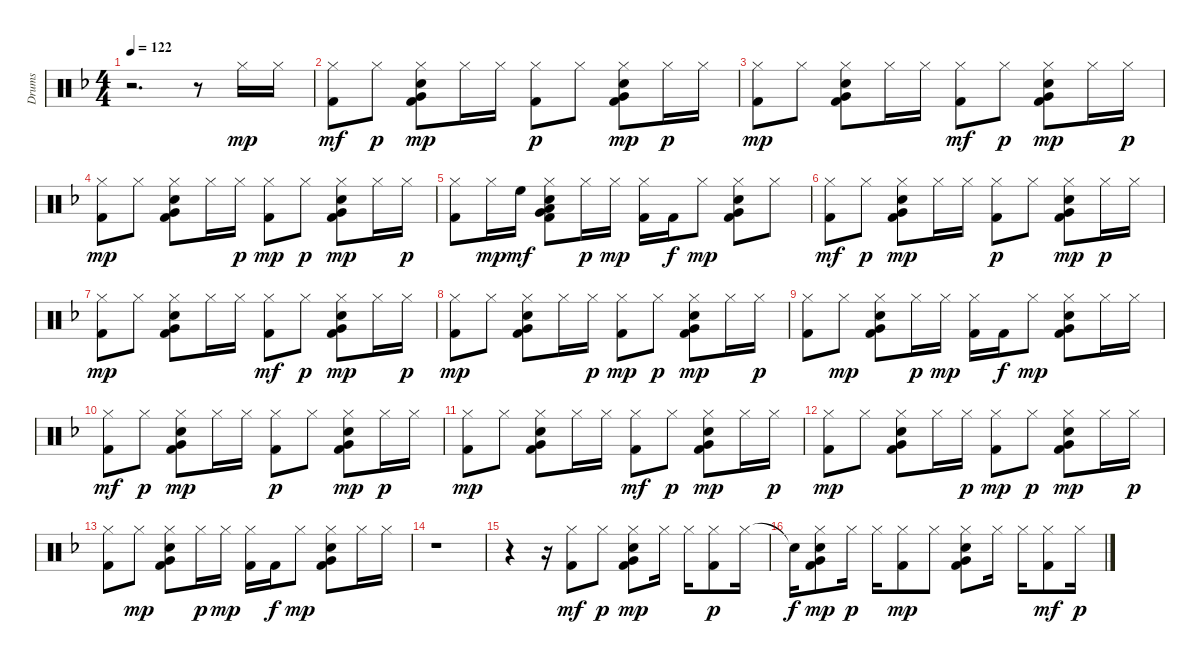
\track ("Drums" "Drums") {instrument percussion}
\staff {score}
\articulation defaults
\ts (4 4)
\tempo 122
\clef neutral
\ks f
r.2{d dy mp} r.8 "Hi-Hat (closed)".16 "Hi-Hat (closed)".16 |
("Kick (hit) 2" "Hi-Hat (closed)").8{dy mf} "Hi-Hat (closed)".8{dy p} ("Kick (hit) 2" "Snare (hit) 2" "Hi-Hat (closed)" "Very Low Tom (hit)").8{dy mp} "Hi-Hat (closed)".16 "Hi-Hat (closed)".16 ("Kick (hit) 2" "Hi-Hat (closed)").8{dy p} "Hi-Hat (closed)".8 ("Kick (hit) 2" "Snare (hit) 2" "Hi-Hat (closed)" "Very Low Tom (hit)").8{dy mp} "Hi-Hat (closed)".16{dy p} "Hi-Hat (closed)".16 |
("Kick (hit) 2" "Hi-Hat (closed)").8{dy mp} "Hi-Hat (closed)".8 ("Kick (hit) 2" "Snare (hit) 2" "Hi-Hat (closed)" "Very Low Tom (hit)").8 "Hi-Hat (closed)".16 "Hi-Hat (closed)".16 ("Kick (hit) 2" "Hi-Hat (closed)").8{dy mf} "Hi-Hat (closed)".8{dy p} ("Kick (hit) 2" "Snare (hit) 2" "Hi-Hat (closed)" "Very Low Tom (hit)").8{dy mp} "Hi-Hat (closed)".16 "Hi-Hat (closed)".16{dy p} |
("Kick (hit) 2" "Hi-Hat (closed)").8{dy mp} "Hi-Hat (closed)".8 ("Kick (hit) 2" "Snare (hit) 2" "Hi-Hat (closed)" "Very Low Tom (hit)").8 "Hi-Hat (closed)".16 "Hi-Hat (closed)".16{dy p} ("Kick (hit) 2" "Hi-Hat (closed)").8{dy mp} "Hi-Hat (closed)".8{dy p} ("Kick (hit) 2" "Snare (hit) 2" "Hi-Hat (closed)" "Very Low Tom (hit)").8{dy mp} "Hi-Hat (closed)".16 "Hi-Hat (closed)".16{dy p} |
("Kick (hit) 2" "Hi-Hat (closed)").8 "Hi-Hat (closed)".16{dy mp} "High Floor Tom (hit)".16{dy mf} ("Kick (hit) 2" "Snare (hit) 2" "Hi-Hat (closed)" "Very Low Tom (hit)" "Low Tom (hit)").8 "Hi-Hat (closed)".16{dy p} "Hi-Hat (closed)".16{dy mp} ("Kick (hit) 2" "Hi-Hat (closed)").16 "Kick (hit) 2".16{dy f} "Hi-Hat (closed)".8{dy mp} ("Kick (hit) 2" "Snare (hit) 2" "Hi-Hat (closed)" "Very Low Tom (hit)").8 "Hi-Hat (closed)".8 |
("Kick (hit) 2" "Hi-Hat (closed)").8{dy mf} "Hi-Hat (closed)".8{dy p} ("Kick (hit) 2" "Snare (hit) 2" "Hi-Hat (closed)" "Very Low Tom (hit)").8{dy mp} "Hi-Hat (closed)".16 "Hi-Hat (closed)".16 ("Kick (hit) 2" "Hi-Hat (closed)").8{dy p} "Hi-Hat (closed)".8 ("Kick (hit) 2" "Snare (hit) 2" "Hi-Hat (closed)" "Very Low Tom (hit)").8{dy mp} "Hi-Hat (closed)".16{dy p} "Hi-Hat (closed)".16 |
("Kick (hit) 2" "Hi-Hat (closed)").8{dy mp} "Hi-Hat (closed)".8 ("Kick (hit) 2" "Snare (hit) 2" "Hi-Hat (closed)" "Very Low Tom (hit)").8 "Hi-Hat (closed)".16 "Hi-Hat (closed)".16 ("Kick (hit) 2" "Hi-Hat (closed)").8{dy mf} "Hi-Hat (closed)".8{dy p} ("Kick (hit) 2" "Snare (hit) 2" "Hi-Hat (closed)" "Very Low Tom (hit)").8{dy mp} "Hi-Hat (closed)".16 "Hi-Hat (closed)".16{dy p} |
("Kick (hit) 2" "Hi-Hat (closed)").8{dy mp} "Hi-Hat (closed)".8 ("Kick (hit) 2" "Snare (hit) 2" "Hi-Hat (closed)" "Very Low Tom (hit)").8 "Hi-Hat (closed)".16 "Hi-Hat (closed)".16{dy p} ("Kick (hit) 2" "Hi-Hat (closed)").8{dy mp} "Hi-Hat (closed)".8{dy p} ("Kick (hit) 2" "Snare (hit) 2" "Hi-Hat (closed)" "Very Low Tom (hit)").8{dy mp} "Hi-Hat (closed)".16 "Hi-Hat (closed)".16{dy p} |
("Kick (hit) 2" "Hi-Hat (closed)").8 "Hi-Hat (closed)".8{dy mp} ("Kick (hit) 2" "Snare (hit) 2" "Hi-Hat (closed)" "Very Low Tom (hit)").8 "Hi-Hat (closed)".16{dy p} "Hi-Hat (closed)".16{dy mp} ("Kick (hit) 2" "Hi-Hat (closed)").16 "Kick (hit) 2".16{dy f} "Hi-Hat (closed)".8{dy mp} ("Kick (hit) 2" "Snare (hit) 2" "Hi-Hat (closed)" "Very Low Tom (hit)").8 "Hi-Hat (closed)".16 "Hi-Hat (closed)".16 |
("Kick (hit) 2" "Hi-Hat (closed)").8{dy mf} "Hi-Hat (closed)".8{dy p} ("Kick (hit) 2" "Snare (hit) 2" "Hi-Hat (closed)" "Very Low Tom (hit)").8{dy mp} "Hi-Hat (closed)".16 "Hi-Hat (closed)".16 ("Kick (hit) 2" "Hi-Hat (closed)").8{dy p} "Hi-Hat (closed)".8 ("Kick (hit) 2" "Snare (hit) 2" "Hi-Hat (closed)" "Very Low Tom (hit)").8{dy mp} "Hi-Hat (closed)".16{dy p} "Hi-Hat (closed)".16 |
("Kick (hit) 2" "Hi-Hat (closed)").8{dy mp} "Hi-Hat (closed)".8 ("Kick (hit) 2" "Snare (hit) 2" "Hi-Hat (closed)" "Very Low Tom (hit)").8 "Hi-Hat (closed)".16 "Hi-Hat (closed)".16 ("Kick (hit) 2" "Hi-Hat (closed)").8{dy mf} "Hi-Hat (closed)".8{dy p} ("Kick (hit) 2" "Snare (hit) 2" "Hi-Hat (closed)" "Very Low Tom (hit)").8{dy mp} "Hi-Hat (closed)".16 "Hi-Hat (closed)".16{dy p} |
("Kick (hit) 2" "Hi-Hat (closed)").8{dy mp} "Hi-Hat (closed)".8 ("Kick (hit) 2" "Snare (hit) 2" "Hi-Hat (closed)" "Very Low Tom (hit)").8 "Hi-Hat (closed)".16 "Hi-Hat (closed)".16{dy p} ("Kick (hit) 2" "Hi-Hat (closed)").8{dy mp} "Hi-Hat (closed)".8{dy p} ("Kick (hit) 2" "Snare (hit) 2" "Hi-Hat (closed)" "Very Low Tom (hit)").8{dy mp} "Hi-Hat (closed)".16 "Hi-Hat (closed)".16{dy p} |
("Kick (hit) 2" "Hi-Hat (closed)").8 "Hi-Hat (closed)".8{dy mp} ("Kick (hit) 2" "Snare (hit) 2" "Hi-Hat (closed)" "Very Low Tom (hit)").8 "Hi-Hat (closed)".16{dy p} "Hi-Hat (closed)".16{dy mp} ("Kick (hit) 2" "Hi-Hat (closed)").16 "Kick (hit) 2".16{dy f} "Hi-Hat (closed)".8{dy mp} ("Kick (hit) 2" "Snare (hit) 2" "Hi-Hat (closed)" "Very Low Tom (hit)").8 "Hi-Hat (closed)".16 "Hi-Hat (closed)".16 |
r.1 |
r.4 r.16 ("Kick (hit) 2" "Hi-Hat (closed)").8{dy mf} "Hi-Hat (closed)".8{dy p} ("Kick (hit) 2" "Snare (hit) 2" "Hi-Hat (closed)" "Very Low Tom (hit)").8{dy mp} "Hi-Hat (closed)".16 "Hi-Hat (closed)".16 ("Kick (hit) 2" "Hi-Hat (closed)").8{dy p} "Hi-Hat (closed)".16 |
"Snare (hit)"{t}.16{dy f} ("Kick (hit) 2" "Snare (hit) 2" "Hi-Hat (closed)" "Very Low Tom (hit)").8{dy mp} "Hi-Hat (closed)".16{dy p} "Hi-Hat (closed)".16 ("Kick (hit) 2" "Hi-Hat (closed)").8{dy mp} "Hi-Hat (closed)".8 ("Kick (hit) 2" "Snare (hit) 2" "Hi-Hat (closed)" "Very Low Tom (hit)").8 "Hi-Hat (closed)".16 "Hi-Hat (closed)".16 ("Kick (hit) 2" "Hi-Hat (closed)").8{dy mf} "Hi-Hat (closed)".16{dy p}
